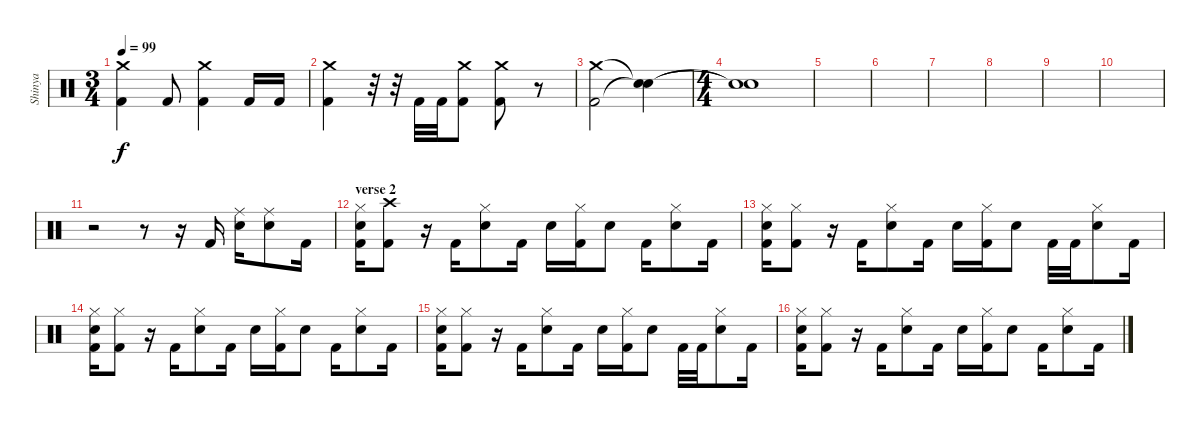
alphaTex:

\track ("Shinya" "Shinya") {instrument percussion}
\staff {score}
\articulation defaults
\ts (3 4)
\tempo 99
\clef neutral
\ks c
("Crash medium (hit)" "Kick (hit) 2").4{dy f} "Kick (hit) 2".8 ("Crash medium (hit)" "Kick (hit) 2").4 "Kick (hit) 2".16 "Kick (hit) 2".16 |
("Crash medium (hit)" "Kick (hit) 2").4 r.32 r.32 "Kick (hit) 2".32 "Kick (hit) 2".32 ("Crash medium (hit)" "Kick (hit) 2").8 ("Crash medium (hit)" "Kick (hit) 2").8 r.8 |
("Crash medium (hit)" "Kick (hit) 2").2 ("Snare (hit)"{t} "Snare (hit)"{t}).4 |
\ts (4 4)
("Snare (hit)"{t} "Snare (hit)"{t}).1 |
|
|
|
|
|
|
r.2 r.8 r.16 "Kick (hit) 2".16 ("Ride (middle)" "Snare (hit) 2").16 ("Ride (middle)" "Snare (hit) 2").8 "Kick (hit) 2".16 |
\section ("" "verse 2")
("Hi-Hat (closed)" "Snare (hit) 2" "Kick (hit) 2").16 ("Crash high (hit)" "Kick (hit) 2").8 r.16 "Kick (hit) 2".16 ("Hi-Hat (closed)" "Snare (hit) 2").8 "Kick (hit) 2".16 "Snare (hit) 2".16 ("Hi-Hat (closed)" "Kick (hit) 2").16 "Snare (hit) 2".8 "Kick (hit) 2".16 ("Hi-Hat (closed)" "Snare (hit) 2").8 "Kick (hit) 2".16 |
("Hi-Hat (closed)" "Snare (hit) 2" "Kick (hit) 2").16 ("Hi-Hat (closed)" "Kick (hit) 2").8 r.16 "Kick (hit) 2".16 ("Hi-Hat (closed)" "Snare (hit) 2").8 "Kick (hit) 2".16 "Snare (hit) 2".16 ("Hi-Hat (closed)" "Kick (hit) 2").16 "Snare (hit) 2".8 "Kick (hit) 2".32 "Kick (hit) 2".32 ("Hi-Hat (closed)" "Snare (hit) 2").8 "Kick (hit) 2".16 |
("Hi-Hat (closed)" "Snare (hit) 2" "Kick (hit) 2").16 ("Hi-Hat (closed)" "Kick (hit) 2").8 r.16 "Kick (hit) 2".16 ("Hi-Hat (closed)" "Snare (hit) 2").8 "Kick (hit) 2".16 "Snare (hit) 2".16 ("Hi-Hat (closed)" "Kick (hit) 2").16 "Snare (hit) 2".8 "Kick (hit) 2".16 ("Hi-Hat (closed)" "Snare (hit) 2").8 "Kick (hit) 2".16 |
("Hi-Hat (closed)" "Snare (hit) 2" "Kick (hit) 2").16 ("Hi-Hat (closed)" "Kick (hit) 2").8 r.16 "Kick (hit) 2".16 ("Hi-Hat (closed)" "Snare (hit) 2").8 "Kick (hit) 2".16 "Snare (hit) 2".16 ("Hi-Hat (closed)" "Kick (hit) 2").16 "Snare (hit) 2".8 "Kick (hit) 2".32 "Kick (hit) 2".32 ("Hi-Hat (closed)" "Snare (hit) 2").8 "Kick (hit) 2".16 |
("Hi-Hat (closed)" "Snare (hit) 2" "Kick (hit) 2").16 ("Hi-Hat (closed)" "Kick (hit) 2").8 r.16 "Kick (hit) 2".16 ("Hi-Hat (closed)" "Snare (hit) 2").8 "Kick (hit) 2".16 "Snare (hit) 2".16 ("Hi-Hat (closed)" "Kick (hit) 2").16 "Snare (hit) 2".8 "Kick (hit) 2".16 ("Hi-Hat (closed)" "Snare (hit) 2").8 "Kick (hit) 2".16
